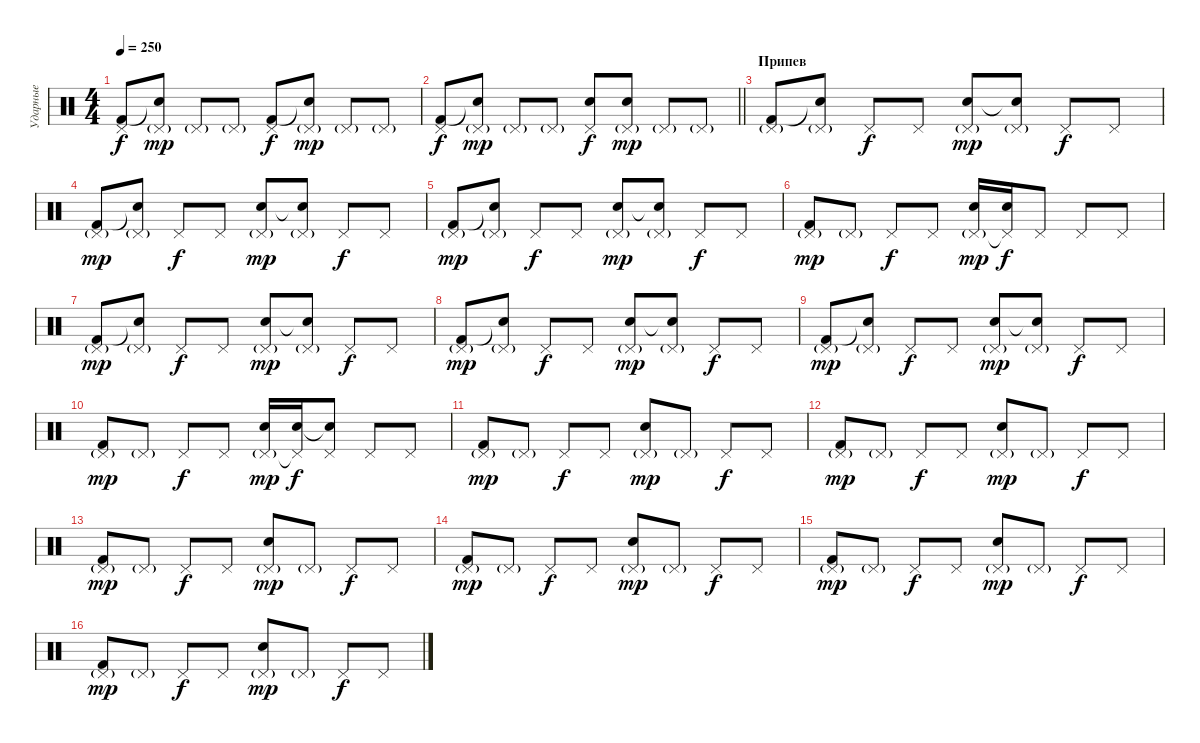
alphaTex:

\track ("Ударные" "Ударные") {instrument percussion}
\staff {score}
\articulation defaults
\ts (4 4)
\tempo 250
\clef neutral
\ks c
("Pedal Hi-Hat (hit)" "Kick (hit) 2").8{dy f} ("Pedal Hi-Hat (hit)"{g} "Snare (hit)"{t}).8{dy mp} "Pedal Hi-Hat (hit)"{g}.8 "Pedal Hi-Hat (hit)"{g}.8 ("Pedal Hi-Hat (hit)" "Kick (hit) 2").8{dy f} ("Pedal Hi-Hat (hit)"{g} "Snare (hit)"{t}).8{dy mp} "Pedal Hi-Hat (hit)"{g}.8 "Pedal Hi-Hat (hit)"{g}.8 |
\barLineRight lightlight
("Pedal Hi-Hat (hit)" "Kick (hit) 2").8{dy f} ("Pedal Hi-Hat (hit)"{g} "Snare (hit)"{t}).8{dy mp} "Pedal Hi-Hat (hit)"{g}.8 "Pedal Hi-Hat (hit)"{g}.8 ("Pedal Hi-Hat (hit)" "Electric Snare (hit)").8{dy f} ("Pedal Hi-Hat (hit)"{g} "Electric Snare (hit)").8{dy mp} "Pedal Hi-Hat (hit)"{g}.8 "Pedal Hi-Hat (hit)"{g}.8 |
\section ("" "Припев")
("Pedal Hi-Hat (hit)"{g} "Kick (hit) 2").8 ("Pedal Hi-Hat (hit)"{g} "Snare (hit)"{t}).8 "Pedal Hi-Hat (hit)".8{dy f} "Pedal Hi-Hat (hit)".8 ("Pedal Hi-Hat (hit)"{g} "Electric Snare (hit)").8{dy mp} ("Pedal Hi-Hat (hit)"{g} "Snare (hit)"{t}).8 "Pedal Hi-Hat (hit)".8{dy f} "Pedal Hi-Hat (hit)".8 |
("Pedal Hi-Hat (hit)"{g} "Kick (hit) 2").8{dy mp} ("Pedal Hi-Hat (hit)"{g} "Snare (hit)"{t}).8 "Pedal Hi-Hat (hit)".8{dy f} "Pedal Hi-Hat (hit)".8 ("Pedal Hi-Hat (hit)"{g} "Electric Snare (hit)").8{dy mp} ("Pedal Hi-Hat (hit)"{g} "Snare (hit)"{t}).8 "Pedal Hi-Hat (hit)".8{dy f} "Pedal Hi-Hat (hit)".8 |
("Pedal Hi-Hat (hit)"{g} "Kick (hit) 2").8{dy mp} ("Pedal Hi-Hat (hit)"{g} "Snare (hit)"{t}).8 "Pedal Hi-Hat (hit)".8{dy f} "Pedal Hi-Hat (hit)".8 ("Pedal Hi-Hat (hit)"{g} "Electric Snare (hit)").8{dy mp} ("Pedal Hi-Hat (hit)"{g} "Snare (hit)"{t}).8 "Pedal Hi-Hat (hit)".8{dy f} "Pedal Hi-Hat (hit)".8 |
("Pedal Hi-Hat (hit)"{g} "Kick (hit) 2").8{dy mp} "Pedal Hi-Hat (hit)"{g}.8 "Pedal Hi-Hat (hit)".8{dy f} "Pedal Hi-Hat (hit)".8 ("Pedal Hi-Hat (hit)"{g} "Electric Snare (hit)").16{dy mp} ("Pedal Hi-Hat (hit)"{t} "Electric Snare (hit)").16{dy f} "Pedal Hi-Hat (hit)".8 "Pedal Hi-Hat (hit)".8 "Pedal Hi-Hat (hit)".8 |
("Pedal Hi-Hat (hit)"{g} "Kick (hit) 2").8{dy mp} ("Pedal Hi-Hat (hit)"{g} "Snare (hit)"{t}).8 "Pedal Hi-Hat (hit)".8{dy f} "Pedal Hi-Hat (hit)".8 ("Pedal Hi-Hat (hit)"{g} "Electric Snare (hit)").8{dy mp} ("Pedal Hi-Hat (hit)"{g} "Snare (hit)"{t}).8 "Pedal Hi-Hat (hit)".8{dy f} "Pedal Hi-Hat (hit)".8 |
("Pedal Hi-Hat (hit)"{g} "Kick (hit) 2").8{dy mp} ("Pedal Hi-Hat (hit)"{g} "Snare (hit)"{t}).8 "Pedal Hi-Hat (hit)".8{dy f} "Pedal Hi-Hat (hit)".8 ("Pedal Hi-Hat (hit)"{g} "Electric Snare (hit)").8{dy mp} ("Pedal Hi-Hat (hit)"{g} "Snare (hit)"{t}).8 "Pedal Hi-Hat (hit)".8{dy f} "Pedal Hi-Hat (hit)".8 |
("Pedal Hi-Hat (hit)"{g} "Kick (hit) 2").8{dy mp} ("Pedal Hi-Hat (hit)"{g} "Snare (hit)"{t}).8 "Pedal Hi-Hat (hit)".8{dy f} "Pedal Hi-Hat (hit)".8 ("Pedal Hi-Hat (hit)"{g} "Electric Snare (hit)").8{dy mp} ("Pedal Hi-Hat (hit)"{g} "Snare (hit)"{t}).8 "Pedal Hi-Hat (hit)".8{dy f} "Pedal Hi-Hat (hit)".8 |
("Pedal Hi-Hat (hit)"{g} "Kick (hit) 2").8{dy mp} "Pedal Hi-Hat (hit)"{g}.8 "Pedal Hi-Hat (hit)".8{dy f} "Pedal Hi-Hat (hit)".8 ("Pedal Hi-Hat (hit)"{g} "Electric Snare (hit)").16{dy mp} ("Pedal Hi-Hat (hit)"{t} "Electric Snare (hit)").16{dy f} ("Pedal Hi-Hat (hit)" "Snare (hit)"{t}).8 "Pedal Hi-Hat (hit)".8 "Pedal Hi-Hat (hit)".8 |
("Pedal Hi-Hat (hit)"{g} "Kick (hit) 2").8{dy mp} "Pedal Hi-Hat (hit)"{g}.8 "Pedal Hi-Hat (hit)".8{dy f} "Pedal Hi-Hat (hit)".8 ("Pedal Hi-Hat (hit)"{g} "Electric Snare (hit)").8{dy mp} "Pedal Hi-Hat (hit)"{g}.8 "Pedal Hi-Hat (hit)".8{dy f} "Pedal Hi-Hat (hit)".8 |
("Pedal Hi-Hat (hit)"{g} "Kick (hit) 2").8{dy mp} "Pedal Hi-Hat (hit)"{g}.8 "Pedal Hi-Hat (hit)".8{dy f} "Pedal Hi-Hat (hit)".8 ("Pedal Hi-Hat (hit)"{g} "Electric Snare (hit)").8{dy mp} "Pedal Hi-Hat (hit)"{g}.8 "Pedal Hi-Hat (hit)".8{dy f} "Pedal Hi-Hat (hit)".8 |
("Pedal Hi-Hat (hit)"{g} "Kick (hit) 2").8{dy mp} "Pedal Hi-Hat (hit)"{g}.8 "Pedal Hi-Hat (hit)".8{dy f} "Pedal Hi-Hat (hit)".8 ("Pedal Hi-Hat (hit)"{g} "Electric Snare (hit)").8{dy mp} "Pedal Hi-Hat (hit)"{g}.8 "Pedal Hi-Hat (hit)".8{dy f} "Pedal Hi-Hat (hit)".8 |
("Pedal Hi-Hat (hit)"{g} "Kick (hit) 2").8{dy mp} "Pedal Hi-Hat (hit)"{g}.8 "Pedal Hi-Hat (hit)".8{dy f} "Pedal Hi-Hat (hit)".8 ("Pedal Hi-Hat (hit)"{g} "Electric Snare (hit)").8{dy mp} "Pedal Hi-Hat (hit)"{g}.8 "Pedal Hi-Hat (hit)".8{dy f} "Pedal Hi-Hat (hit)".8 |
("Pedal Hi-Hat (hit)"{g} "Kick (hit) 2").8{dy mp} "Pedal Hi-Hat (hit)"{g}.8 "Pedal Hi-Hat (hit)".8{dy f} "Pedal Hi-Hat (hit)".8 ("Pedal Hi-Hat (hit)"{g} "Electric Snare (hit)").8{dy mp} "Pedal Hi-Hat (hit)"{g}.8 "Pedal Hi-Hat (hit)".8{dy f} "Pedal Hi-Hat (hit)".8 |
("Pedal Hi-Hat (hit)"{g} "Kick (hit) 2").8{dy mp} "Pedal Hi-Hat (hit)"{g}.8 "Pedal Hi-Hat (hit)".8{dy f} "Pedal Hi-Hat (hit)".8 ("Pedal Hi-Hat (hit)"{g} "Electric Snare (hit)").8{dy mp} "Pedal Hi-Hat (hit)"{g}.8 "Pedal Hi-Hat (hit)".8{dy f} "Pedal Hi-Hat (hit)".8
